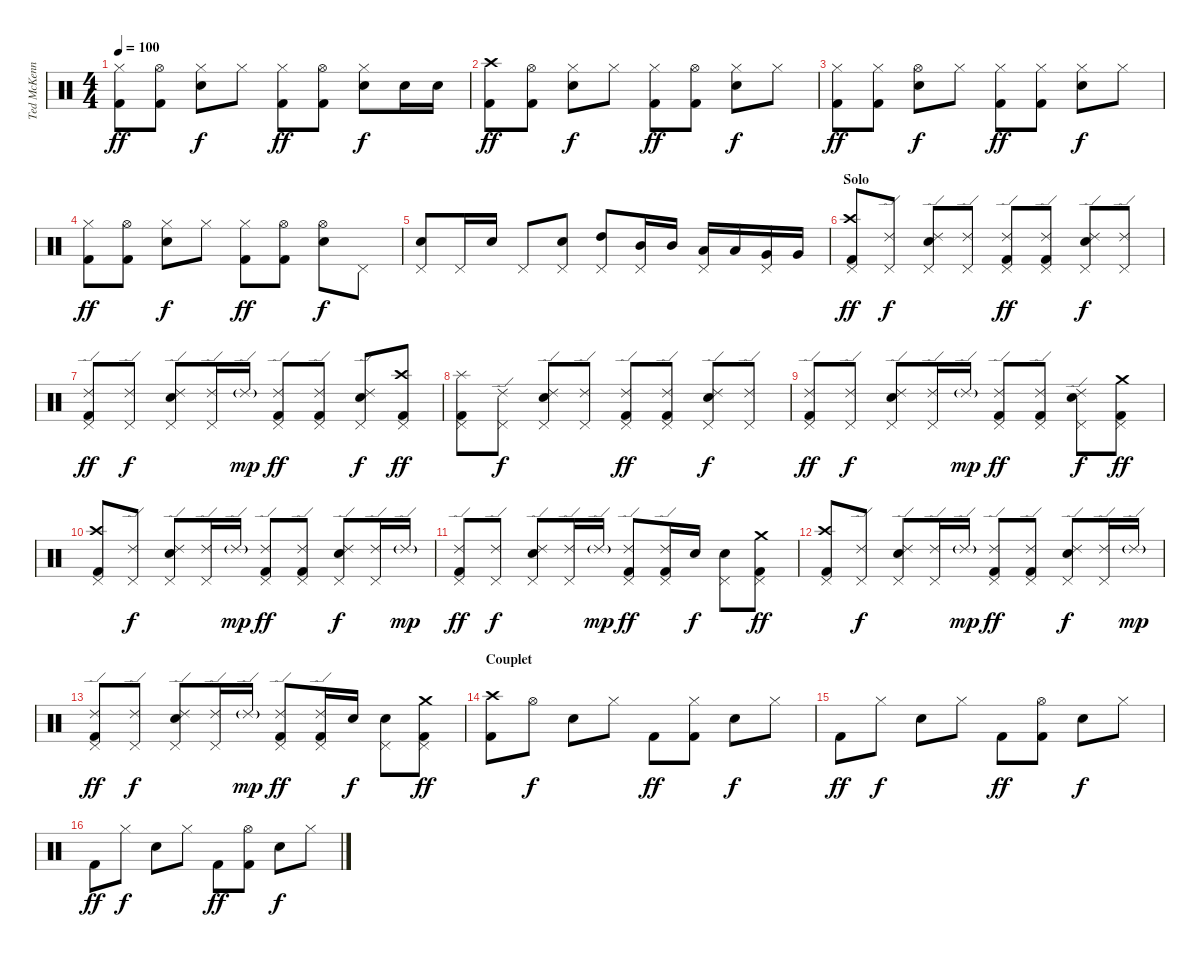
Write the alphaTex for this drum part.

\track ("Ted McKenna" "Ted McKenn") {instrument percussion}
\staff {score}
\articulation defaults
\ts (4 4)
\tempo 100
\clef neutral
\ks c
("Hi-Hat (closed)" "Kick (hit) 2").8{dy ff} ("Hi-Hat (open)" "Kick (hit) 2").8 ("Hi-Hat (closed)" "Snare (hit) 2").8{dy f} "Hi-Hat (closed)".8 ("Hi-Hat (closed)" "Kick (hit) 2").8{dy ff} ("Hi-Hat (open)" "Kick (hit) 2").8 ("Hi-Hat (closed)" "Snare (hit) 2").8{dy f} "Snare (hit) 2".16 "Snare (hit) 2".16 |
("Crash high (hit)" "Kick (hit) 2").8{dy ff} ("Hi-Hat (open)" "Kick (hit) 2").8 ("Hi-Hat (closed)" "Snare (hit) 2").8{dy f} "Hi-Hat (closed)".8 ("Hi-Hat (closed)" "Kick (hit) 2").8{dy ff} ("Hi-Hat (open)" "Kick (hit) 2").8 ("Hi-Hat (closed)" "Snare (hit) 2").8{dy f} "Hi-Hat (closed)".8 |
("Hi-Hat (closed)" "Kick (hit) 2").8{dy ff} ("Hi-Hat (closed)" "Kick (hit) 2").8 ("Hi-Hat (open)" "Snare (hit) 2").8{dy f} "Hi-Hat (closed)".8 ("Hi-Hat (closed)" "Kick (hit) 2").8{dy ff} ("Hi-Hat (closed)" "Kick (hit) 2").8 ("Hi-Hat (closed)" "Snare (hit) 2").8{dy f} "Hi-Hat (closed)".8 |
("Hi-Hat (closed)" "Kick (hit) 2").8{dy ff} ("Hi-Hat (open)" "Kick (hit) 2").8 ("Hi-Hat (closed)" "Snare (hit) 2").8{dy f} "Hi-Hat (closed)".8 ("Hi-Hat (closed)" "Kick (hit) 2").8{dy ff} ("Hi-Hat (open)" "Kick (hit) 2").8 ("Hi-Hat (open)" "Snare (hit) 2").8{dy f} "Pedal Hi-Hat (hit)".8 |
("Snare (hit) 2" "Pedal Hi-Hat (hit)").8 "Pedal Hi-Hat (hit)".16 "Snare (hit) 2".16 "Pedal Hi-Hat (hit)".8 ("Snare (hit) 2" "Pedal Hi-Hat (hit)").8 ("High Tom (hit)" "Pedal Hi-Hat (hit)").8 ("Mid Tom (hit)" "Pedal Hi-Hat (hit)").16 "Mid Tom (hit)".16 ("Low Tom (hit)" "Pedal Hi-Hat (hit)").16 "Low Tom (hit)".16 ("Very Low Tom (hit)" "Pedal Hi-Hat (hit)").16 "Very Low Tom (hit)".16 |
\section ("" "Solo")
("Crash high (hit)" "Pedal Hi-Hat (hit)" "Kick (hit) 2").8{dy ff} ("Ride (edge) 2" "Pedal Hi-Hat (hit)").8{dy f} ("Ride (edge) 2" "Snare (hit) 2" "Pedal Hi-Hat (hit)").8 ("Ride (edge) 2" "Pedal Hi-Hat (hit)").8 ("Ride (edge) 2" "Pedal Hi-Hat (hit)" "Kick (hit) 2").8{dy ff} ("Ride (edge) 2" "Pedal Hi-Hat (hit)" "Kick (hit) 2").8 ("Ride (edge) 2" "Snare (hit) 2" "Pedal Hi-Hat (hit)").8{dy f} ("Ride (edge) 2" "Pedal Hi-Hat (hit)").8 |
("Ride (edge) 2" "Pedal Hi-Hat (hit)" "Kick (hit) 2").8{dy ff} ("Ride (edge) 2" "Pedal Hi-Hat (hit)").8{dy f} ("Ride (edge) 2" "Snare (hit) 2" "Pedal Hi-Hat (hit)").8 ("Ride (edge) 2" "Pedal Hi-Hat (hit)").16 "Ride (edge) 2"{g}.16{dy mp} ("Ride (edge) 2" "Pedal Hi-Hat (hit)" "Kick (hit) 2").8{dy ff} ("Ride (edge) 2" "Pedal Hi-Hat (hit)" "Kick (hit) 2").8 ("Ride (edge) 2" "Snare (hit) 2" "Pedal Hi-Hat (hit)").8{dy f} ("Crash high (hit)" "Pedal Hi-Hat (hit)" "Kick (hit) 2").8{dy ff} |
("Splash (hit)" "Pedal Hi-Hat (hit)" "Kick (hit) 2").8 ("Ride (edge) 2" "Pedal Hi-Hat (hit)").8{dy f} ("Ride (edge) 2" "Snare (hit) 2" "Pedal Hi-Hat (hit)").8 ("Ride (edge) 2" "Pedal Hi-Hat (hit)").8 ("Ride (edge) 2" "Pedal Hi-Hat (hit)" "Kick (hit) 2").8{dy ff} ("Ride (edge) 2" "Pedal Hi-Hat (hit)" "Kick (hit) 2").8 ("Ride (edge) 2" "Snare (hit) 2" "Pedal Hi-Hat (hit)").8{dy f} ("Ride (edge) 2" "Pedal Hi-Hat (hit)").8 |
("Ride (edge) 2" "Pedal Hi-Hat (hit)" "Kick (hit) 2").8{dy ff} ("Ride (edge) 2" "Pedal Hi-Hat (hit)").8{dy f} ("Ride (edge) 2" "Snare (hit) 2" "Pedal Hi-Hat (hit)").8 ("Ride (edge) 2" "Pedal Hi-Hat (hit)").16 "Ride (edge) 2"{g}.16{dy mp} ("Ride (edge) 2" "Pedal Hi-Hat (hit)" "Kick (hit) 2").8{dy ff} ("Ride (edge) 2" "Pedal Hi-Hat (hit)" "Kick (hit) 2").8 ("Ride (edge) 2" "Snare (hit) 2" "Pedal Hi-Hat (hit)").8{dy f} ("Crash medium (hit)" "Pedal Hi-Hat (hit)" "Kick (hit) 2").8{dy ff} |
("Crash high (hit)" "Pedal Hi-Hat (hit)" "Kick (hit) 2").8 ("Ride (edge) 2" "Pedal Hi-Hat (hit)").8{dy f} ("Ride (edge) 2" "Snare (hit) 2" "Pedal Hi-Hat (hit)").8 ("Ride (edge) 2" "Pedal Hi-Hat (hit)").16 "Ride (edge) 2"{g}.16{dy mp} ("Ride (edge) 2" "Pedal Hi-Hat (hit)" "Kick (hit) 2").8{dy ff} ("Ride (edge) 2" "Pedal Hi-Hat (hit)" "Kick (hit) 2").8 ("Ride (edge) 2" "Snare (hit) 2" "Pedal Hi-Hat (hit)").8{dy f} ("Ride (edge) 2" "Pedal Hi-Hat (hit)").16 "Ride (edge) 2"{g}.16{dy mp} |
("Ride (edge) 2" "Pedal Hi-Hat (hit)" "Kick (hit) 2").8{dy ff} ("Ride (edge) 2" "Pedal Hi-Hat (hit)").8{dy f} ("Ride (edge) 2" "Snare (hit) 2" "Pedal Hi-Hat (hit)").8 ("Ride (edge) 2" "Pedal Hi-Hat (hit)").16 "Ride (edge) 2"{g}.16{dy mp} ("Ride (edge) 2" "Pedal Hi-Hat (hit)" "Kick (hit) 2").8{dy ff} ("Ride (edge) 2" "Pedal Hi-Hat (hit)" "Kick (hit) 2").16 "Snare (hit) 2".16{dy f} ("Snare (hit) 2" "Pedal Hi-Hat (hit)").8 ("Crash medium (hit)" "Pedal Hi-Hat (hit)" "Kick (hit) 2").8{dy ff} |
("Crash high (hit)" "Pedal Hi-Hat (hit)" "Kick (hit) 2").8 ("Ride (edge) 2" "Pedal Hi-Hat (hit)").8{dy f} ("Ride (edge) 2" "Snare (hit) 2" "Pedal Hi-Hat (hit)").8 ("Ride (edge) 2" "Pedal Hi-Hat (hit)").16 "Ride (edge) 2"{g}.16{dy mp} ("Ride (edge) 2" "Pedal Hi-Hat (hit)" "Kick (hit) 2").8{dy ff} ("Ride (edge) 2" "Pedal Hi-Hat (hit)" "Kick (hit) 2").8 ("Ride (edge) 2" "Snare (hit) 2" "Pedal Hi-Hat (hit)").8{dy f} ("Ride (edge) 2" "Pedal Hi-Hat (hit)").16 "Ride (edge) 2"{g}.16{dy mp} |
("Ride (edge) 2" "Pedal Hi-Hat (hit)" "Kick (hit) 2").8{dy ff} ("Ride (edge) 2" "Pedal Hi-Hat (hit)").8{dy f} ("Ride (edge) 2" "Snare (hit) 2" "Pedal Hi-Hat (hit)").8 ("Ride (edge) 2" "Pedal Hi-Hat (hit)").16 "Ride (edge) 2"{g}.16{dy mp} ("Ride (edge) 2" "Pedal Hi-Hat (hit)" "Kick (hit) 2").8{dy ff} ("Ride (edge) 2" "Pedal Hi-Hat (hit)" "Kick (hit) 2").16 "Snare (hit) 2".16{dy f} ("Snare (hit) 2" "Pedal Hi-Hat (hit)").8 ("Crash medium (hit)" "Pedal Hi-Hat (hit)" "Kick (hit) 2").8{dy ff} |
\section ("" "Couplet")
("Crash high (hit)" "Kick (hit) 2").8 "Hi-Hat (open)".8{dy f} "Snare (hit) 2".8 "Hi-Hat (closed)".8 "Kick (hit) 2".8{dy ff} ("Hi-Hat (closed)" "Kick (hit) 2").8 "Snare (hit) 2".8{dy f} "Hi-Hat (closed)".8 |
"Kick (hit) 2".8{dy ff} "Hi-Hat (closed)".8{dy f} "Snare (hit) 2".8 "Hi-Hat (closed)".8 "Kick (hit) 2".8{dy ff} ("Hi-Hat (open)" "Kick (hit) 2").8 "Snare (hit) 2".8{dy f} "Hi-Hat (closed)".8 |
"Kick (hit) 2".8{dy ff} "Hi-Hat (closed)".8{dy f} "Snare (hit) 2".8 "Hi-Hat (closed)".8 "Kick (hit) 2".8{dy ff} ("Hi-Hat (open)" "Kick (hit) 2").8 "Snare (hit) 2".8{dy f} "Hi-Hat (closed)".8
